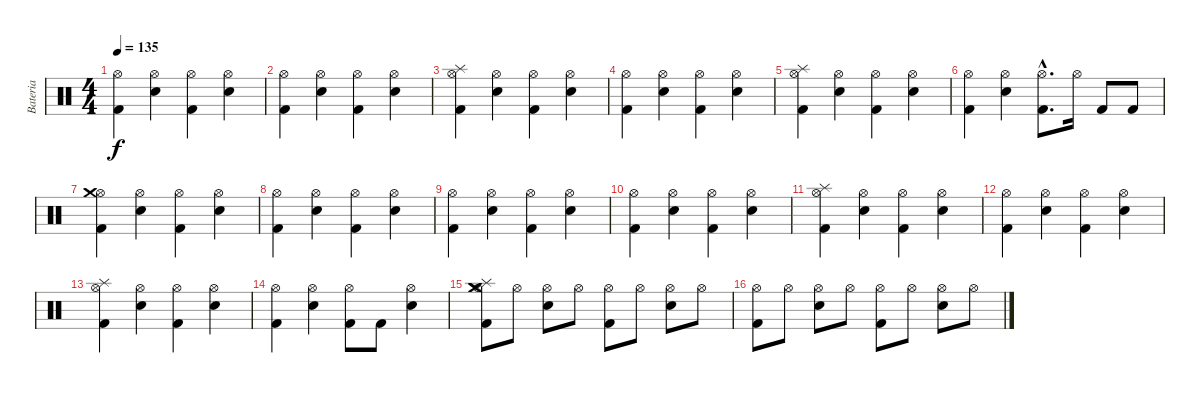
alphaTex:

\track ("Bateria" "Bateria") {instrument percussion}
\staff {score}
\articulation defaults
\ts (4 4)
\tempo 135
\clef neutral
\ks c
("Kick (hit) 2" "Hi-Hat (open)").4{dy f} ("Electric Snare (hit)" "Hi-Hat (open)").4 ("Kick (hit) 2" "Hi-Hat (open)").4 ("Electric Snare (hit)" "Hi-Hat (open)").4 |
("Kick (hit) 2" "Hi-Hat (open)").4 ("Electric Snare (hit)" "Hi-Hat (open)").4 ("Kick (hit) 2" "Hi-Hat (open)").4 ("Electric Snare (hit)" "Hi-Hat (open)").4 |
("Kick (hit) 2" "Hi-Hat (open)" "Splash (hit)").4 ("Electric Snare (hit)" "Hi-Hat (open)").4 ("Kick (hit) 2" "Hi-Hat (open)").4 ("Electric Snare (hit)" "Hi-Hat (open)").4 |
("Kick (hit) 2" "Hi-Hat (open)").4 ("Electric Snare (hit)" "Hi-Hat (open)").4 ("Kick (hit) 2" "Hi-Hat (open)").4 ("Electric Snare (hit)" "Hi-Hat (open)").4 |
("Kick (hit) 2" "Hi-Hat (open)" "Splash (hit)").4 ("Electric Snare (hit)" "Hi-Hat (open)").4 ("Kick (hit) 2" "Hi-Hat (open)").4 ("Electric Snare (hit)" "Hi-Hat (open)").4 |
("Kick (hit) 2" "Hi-Hat (open)").4 ("Electric Snare (hit)" "Hi-Hat (open)").4 ("Kick (hit) 2"{hac} "Hi-Hat (open)"{hac}).8{d} "Hi-Hat (open)".16 "Kick (hit) 2".8 "Kick (hit) 2".8 |
("Kick (hit) 2" "Hi-Hat (open)" "Crash medium (hit)").4 ("Electric Snare (hit)" "Hi-Hat (open)").4 ("Kick (hit) 2" "Hi-Hat (open)").4 ("Electric Snare (hit)" "Hi-Hat (open)").4 |
("Kick (hit) 2" "Hi-Hat (open)").4 ("Electric Snare (hit)" "Hi-Hat (open)").4 ("Kick (hit) 2" "Hi-Hat (open)").4 ("Electric Snare (hit)" "Hi-Hat (open)").4 |
("Kick (hit) 2" "Hi-Hat (open)").4 ("Electric Snare (hit)" "Hi-Hat (open)").4 ("Kick (hit) 2" "Hi-Hat (open)").4 ("Electric Snare (hit)" "Hi-Hat (open)").4 |
("Kick (hit) 2" "Hi-Hat (open)").4 ("Electric Snare (hit)" "Hi-Hat (open)").4 ("Kick (hit) 2" "Hi-Hat (open)").4 ("Electric Snare (hit)" "Hi-Hat (open)").4 |
("Kick (hit) 2" "Hi-Hat (open)" "Splash (hit)").4 ("Electric Snare (hit)" "Hi-Hat (open)").4 ("Kick (hit) 2" "Hi-Hat (open)").4 ("Electric Snare (hit)" "Hi-Hat (open)").4 |
("Kick (hit) 2" "Hi-Hat (open)").4 ("Electric Snare (hit)" "Hi-Hat (open)").4 ("Kick (hit) 2" "Hi-Hat (open)").4 ("Electric Snare (hit)" "Hi-Hat (open)").4 |
("Kick (hit) 2" "Hi-Hat (open)" "Splash (hit)").4 ("Electric Snare (hit)" "Hi-Hat (open)").4 ("Kick (hit) 2" "Hi-Hat (open)").4 ("Electric Snare (hit)" "Hi-Hat (open)").4 |
("Kick (hit) 2" "Hi-Hat (open)").4 ("Electric Snare (hit)" "Hi-Hat (open)").4 ("Kick (hit) 2" "Hi-Hat (open)").8 "Kick (hit) 2".8 ("Electric Snare (hit)" "Hi-Hat (open)").4 |
("Kick (hit) 2" "Hi-Hat (open)" "Crash medium (hit)" "Crash medium (hit)" "Splash (hit)").8 "Hi-Hat (open)".8 ("Electric Snare (hit)" "Hi-Hat (open)").8 "Hi-Hat (open)".8 ("Kick (hit) 2" "Hi-Hat (open)").8 "Hi-Hat (open)".8 ("Electric Snare (hit)" "Hi-Hat (open)").8 "Hi-Hat (open)".8 |
("Kick (hit) 2" "Hi-Hat (open)").8 "Hi-Hat (open)".8 ("Electric Snare (hit)" "Hi-Hat (open)").8 "Hi-Hat (open)".8 ("Kick (hit) 2" "Hi-Hat (open)").8 "Hi-Hat (open)".8 ("Electric Snare (hit)" "Hi-Hat (open)").8 "Hi-Hat (open)".8
